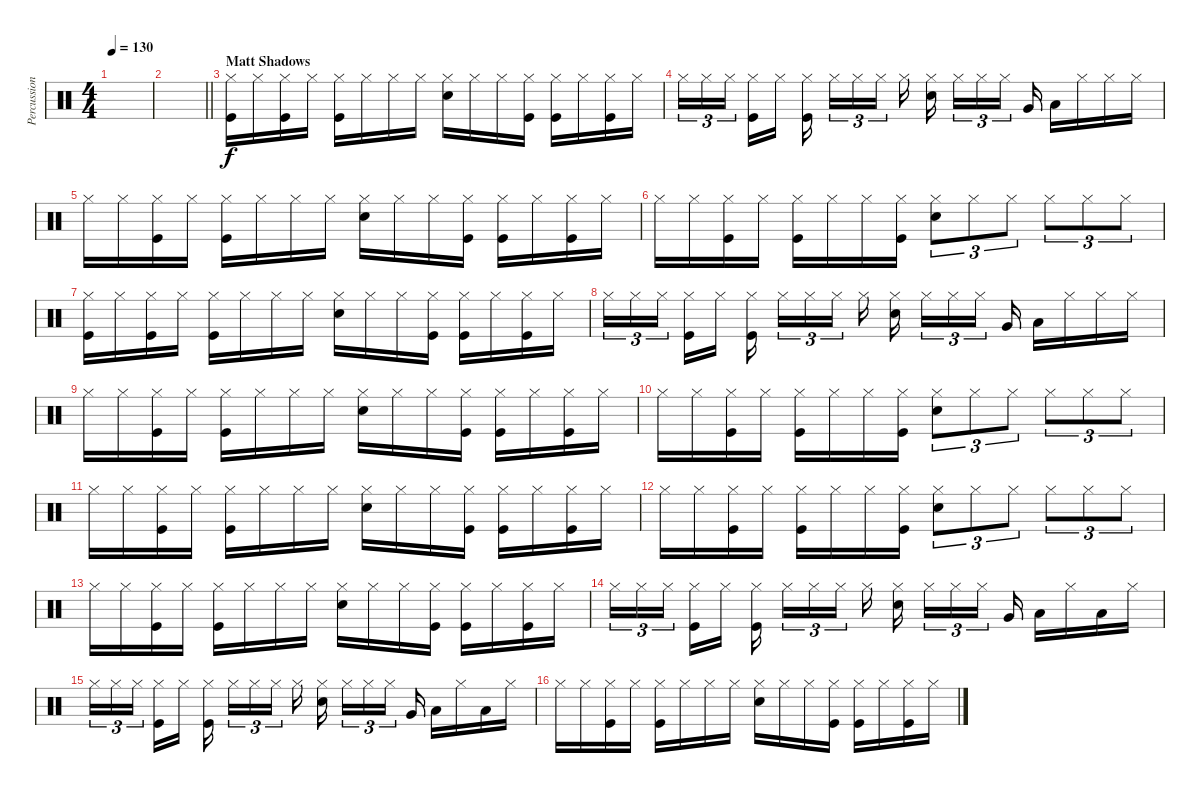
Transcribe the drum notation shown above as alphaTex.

\track ("Percussion" "Percussion") {instrument percussion}
\staff {score}
\articulation defaults
\ts (4 4)
\tempo 130
\clef neutral
\ks c
|
\barLineRight lightlight
|
\section ("" "Matt Shadows")
("Hi-Hat (closed)" "Kick (hit)").16 "Hi-Hat (closed)".16 ("Hi-Hat (closed)" "Kick (hit)").16 "Hi-Hat (closed)".16 ("Hi-Hat (closed)" "Kick (hit)").16 "Hi-Hat (closed)".16 "Hi-Hat (closed)".16 "Hi-Hat (closed)".16 ("Hi-Hat (closed)" "Hand Clap (hit)").16 "Hi-Hat (closed)".16 "Hi-Hat (closed)".16 ("Hi-Hat (closed)" "Kick (hit)").16 ("Hi-Hat (closed)" "Kick (hit)").16 "Hi-Hat (closed)".16 ("Hi-Hat (closed)" "Kick (hit)").16 "Hi-Hat (closed)".16 |
"Hi-Hat (closed)".16{tu (3 2)} "Hi-Hat (closed)".16{tu (3 2)} "Hi-Hat (closed)".16{tu (3 2) beam splitsecondary} ("Hi-Hat (closed)" "Kick (hit)").16 "Hi-Hat (closed)".16 ("Hi-Hat (closed)" "Kick (hit)").16{beam splitsecondary} "Hi-Hat (closed)".16{tu (3 2)} "Hi-Hat (closed)".16{tu (3 2)} "Hi-Hat (closed)".16{tu (3 2) beam splitsecondary} "Hi-Hat (closed)".16 ("Hi-Hat (closed)" "Hand Clap (hit)").16{beam splitsecondary} "Hi-Hat (closed)".16{tu (3 2)} "Hi-Hat (closed)".16{tu (3 2)} "Hi-Hat (closed)".16{tu (3 2) beam splitsecondary} "Very Low Tom (hit)".16 "Low Floor Tom (hit)".16 "Hi-Hat (closed)".16 "Hi-Hat (closed)".16 "Hi-Hat (closed)".16 |
"Hi-Hat (closed)".16 "Hi-Hat (closed)".16 ("Hi-Hat (closed)" "Kick (hit)").16 "Hi-Hat (closed)".16 ("Hi-Hat (closed)" "Kick (hit)").16 "Hi-Hat (closed)".16 "Hi-Hat (closed)".16 "Hi-Hat (closed)".16 ("Hi-Hat (closed)" "Hand Clap (hit)").16 "Hi-Hat (closed)".16 "Hi-Hat (closed)".16 ("Hi-Hat (closed)" "Kick (hit)").16 ("Hi-Hat (closed)" "Kick (hit)").16 "Hi-Hat (closed)".16 ("Hi-Hat (closed)" "Kick (hit)").16 "Hi-Hat (closed)".16 |
"Hi-Hat (closed)".16 "Hi-Hat (closed)".16 ("Hi-Hat (closed)" "Kick (hit)").16 "Hi-Hat (closed)".16 ("Hi-Hat (closed)" "Kick (hit)").16 "Hi-Hat (closed)".16 "Hi-Hat (closed)".16 ("Hi-Hat (closed)" "Kick (hit)").16 ("Hi-Hat (closed)" "Hand Clap (hit)").8{tu (3 2)} "Hi-Hat (closed)".8{tu (3 2)} "Hi-Hat (closed)".8{tu (3 2)} "Hi-Hat (closed)".8{tu (3 2)} "Hi-Hat (closed)".8{tu (3 2)} "Hi-Hat (closed)".8{tu (3 2)} |
("Hi-Hat (closed)" "Kick (hit)").16 "Hi-Hat (closed)".16 ("Hi-Hat (closed)" "Kick (hit)").16 "Hi-Hat (closed)".16 ("Hi-Hat (closed)" "Kick (hit)").16 "Hi-Hat (closed)".16 "Hi-Hat (closed)".16 "Hi-Hat (closed)".16 ("Hi-Hat (closed)" "Hand Clap (hit)").16 "Hi-Hat (closed)".16 "Hi-Hat (closed)".16 ("Hi-Hat (closed)" "Kick (hit)").16 ("Hi-Hat (closed)" "Kick (hit)").16 "Hi-Hat (closed)".16 ("Hi-Hat (closed)" "Kick (hit)").16 "Hi-Hat (closed)".16 |
"Hi-Hat (closed)".16{tu (3 2)} "Hi-Hat (closed)".16{tu (3 2)} "Hi-Hat (closed)".16{tu (3 2) beam splitsecondary} ("Hi-Hat (closed)" "Kick (hit)").16 "Hi-Hat (closed)".16 ("Hi-Hat (closed)" "Kick (hit)").16{beam splitsecondary} "Hi-Hat (closed)".16{tu (3 2)} "Hi-Hat (closed)".16{tu (3 2)} "Hi-Hat (closed)".16{tu (3 2) beam splitsecondary} "Hi-Hat (closed)".16 ("Hi-Hat (closed)" "Hand Clap (hit)").16{beam splitsecondary} "Hi-Hat (closed)".16{tu (3 2)} "Hi-Hat (closed)".16{tu (3 2)} "Hi-Hat (closed)".16{tu (3 2) beam splitsecondary} "Very Low Tom (hit)".16 "Low Floor Tom (hit)".16 "Hi-Hat (closed)".16 "Hi-Hat (closed)".16 "Hi-Hat (closed)".16 |
"Hi-Hat (closed)".16 "Hi-Hat (closed)".16 ("Hi-Hat (closed)" "Kick (hit)").16 "Hi-Hat (closed)".16 ("Hi-Hat (closed)" "Kick (hit)").16 "Hi-Hat (closed)".16 "Hi-Hat (closed)".16 "Hi-Hat (closed)".16 ("Hi-Hat (closed)" "Hand Clap (hit)").16 "Hi-Hat (closed)".16 "Hi-Hat (closed)".16 ("Hi-Hat (closed)" "Kick (hit)").16 ("Hi-Hat (closed)" "Kick (hit)").16 "Hi-Hat (closed)".16 ("Hi-Hat (closed)" "Kick (hit)").16 "Hi-Hat (closed)".16 |
"Hi-Hat (closed)".16 "Hi-Hat (closed)".16 ("Hi-Hat (closed)" "Kick (hit)").16 "Hi-Hat (closed)".16 ("Hi-Hat (closed)" "Kick (hit)").16 "Hi-Hat (closed)".16 "Hi-Hat (closed)".16 ("Hi-Hat (closed)" "Kick (hit)").16 ("Hi-Hat (closed)" "Hand Clap (hit)").8{tu (3 2)} "Hi-Hat (closed)".8{tu (3 2)} "Hi-Hat (closed)".8{tu (3 2)} "Hi-Hat (closed)".8{tu (3 2)} "Hi-Hat (closed)".8{tu (3 2)} "Hi-Hat (closed)".8{tu (3 2)} |
"Hi-Hat (closed)".16 "Hi-Hat (closed)".16 ("Hi-Hat (closed)" "Kick (hit)").16 "Hi-Hat (closed)".16 ("Hi-Hat (closed)" "Kick (hit)").16 "Hi-Hat (closed)".16 "Hi-Hat (closed)".16 "Hi-Hat (closed)".16 ("Hi-Hat (closed)" "Hand Clap (hit)").16 "Hi-Hat (closed)".16 "Hi-Hat (closed)".16 ("Hi-Hat (closed)" "Kick (hit)").16 ("Hi-Hat (closed)" "Kick (hit)").16 "Hi-Hat (closed)".16 ("Hi-Hat (closed)" "Kick (hit)").16 "Hi-Hat (closed)".16 |
"Hi-Hat (closed)".16 "Hi-Hat (closed)".16 ("Hi-Hat (closed)" "Kick (hit)").16 "Hi-Hat (closed)".16 ("Hi-Hat (closed)" "Kick (hit)").16 "Hi-Hat (closed)".16 "Hi-Hat (closed)".16 ("Hi-Hat (closed)" "Kick (hit)").16 ("Hi-Hat (closed)" "Hand Clap (hit)").8{tu (3 2)} "Hi-Hat (closed)".8{tu (3 2)} "Hi-Hat (closed)".8{tu (3 2)} "Hi-Hat (closed)".8{tu (3 2)} "Hi-Hat (closed)".8{tu (3 2)} "Hi-Hat (closed)".8{tu (3 2)} |
"Hi-Hat (closed)".16 "Hi-Hat (closed)".16 ("Hi-Hat (closed)" "Kick (hit)").16 "Hi-Hat (closed)".16 ("Hi-Hat (closed)" "Kick (hit)").16 "Hi-Hat (closed)".16 "Hi-Hat (closed)".16 "Hi-Hat (closed)".16 ("Hi-Hat (closed)" "Hand Clap (hit)").16 "Hi-Hat (closed)".16 "Hi-Hat (closed)".16 ("Hi-Hat (closed)" "Kick (hit)").16 ("Hi-Hat (closed)" "Kick (hit)").16 "Hi-Hat (closed)".16 ("Hi-Hat (closed)" "Kick (hit)").16 "Hi-Hat (closed)".16 |
"Hi-Hat (closed)".16{tu (3 2)} "Hi-Hat (closed)".16{tu (3 2)} "Hi-Hat (closed)".16{tu (3 2) beam splitsecondary} ("Hi-Hat (closed)" "Kick (hit)").16 "Hi-Hat (closed)".16 ("Hi-Hat (closed)" "Kick (hit)").16{beam splitsecondary} "Hi-Hat (closed)".16{tu (3 2)} "Hi-Hat (closed)".16{tu (3 2)} "Hi-Hat (closed)".16{tu (3 2) beam splitsecondary} "Hi-Hat (closed)".16 ("Hi-Hat (closed)" "Hand Clap (hit)").16{beam splitsecondary} "Hi-Hat (closed)".16{tu (3 2)} "Hi-Hat (closed)".16{tu (3 2)} "Hi-Hat (closed)".16{tu (3 2) beam splitsecondary} "Very Low Tom (hit)".16 "Low Floor Tom (hit)".16 "Hi-Hat (closed)".16 "Low Floor Tom (hit)".16 "Hi-Hat (closed)".16 |
"Hi-Hat (closed)".16{tu (3 2)} "Hi-Hat (closed)".16{tu (3 2)} "Hi-Hat (closed)".16{tu (3 2) beam splitsecondary} ("Hi-Hat (closed)" "Kick (hit)").16 "Hi-Hat (closed)".16 ("Hi-Hat (closed)" "Kick (hit)").16{beam splitsecondary} "Hi-Hat (closed)".16{tu (3 2)} "Hi-Hat (closed)".16{tu (3 2)} "Hi-Hat (closed)".16{tu (3 2) beam splitsecondary} "Hi-Hat (closed)".16 ("Hi-Hat (closed)" "Hand Clap (hit)").16{beam splitsecondary} "Hi-Hat (closed)".16{tu (3 2)} "Hi-Hat (closed)".16{tu (3 2)} "Hi-Hat (closed)".16{tu (3 2) beam splitsecondary} "Very Low Tom (hit)".16 "Low Floor Tom (hit)".16 "Hi-Hat (closed)".16 "Low Floor Tom (hit)".16 "Hi-Hat (closed)".16 |
"Hi-Hat (closed)".16 "Hi-Hat (closed)".16 ("Hi-Hat (closed)" "Kick (hit)").16 "Hi-Hat (closed)".16 ("Hi-Hat (closed)" "Kick (hit)").16 "Hi-Hat (closed)".16 "Hi-Hat (closed)".16 "Hi-Hat (closed)".16 ("Hi-Hat (closed)" "Hand Clap (hit)").16 "Hi-Hat (closed)".16 "Hi-Hat (closed)".16 ("Hi-Hat (closed)" "Kick (hit)").16 ("Hi-Hat (closed)" "Kick (hit)").16 "Hi-Hat (closed)".16 ("Hi-Hat (closed)" "Kick (hit)").16 "Hi-Hat (closed)".16
